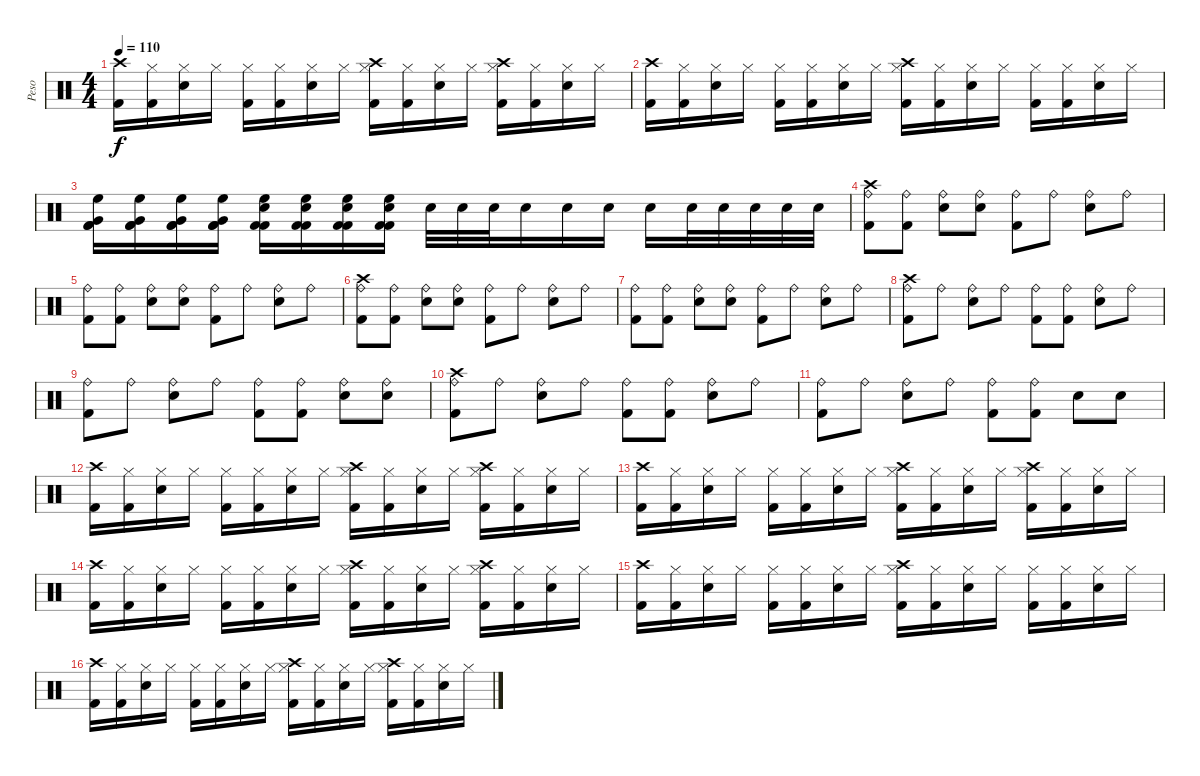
\track ("Peso" "Peso") {instrument percussion}
\staff {score}
\articulation defaults
\ts (4 4)
\tempo 110
\clef neutral
\ks c
("Crash high (hit)" "Kick (hit) 2").16{dy f} ("Hi-Hat (closed)" "Kick (hit) 2").16 ("Hi-Hat (closed)" "Snare (hit) 2").16 "Hi-Hat (closed)".16 ("Hi-Hat (closed)" "Kick (hit) 2").16 ("Hi-Hat (closed)" "Kick (hit) 2").16 ("Hi-Hat (closed)" "Snare (hit) 2").16 "Hi-Hat (closed)".16 ("Crash high (hit)" "Hi-Hat (closed)" "Kick (hit) 2").16 ("Hi-Hat (closed)" "Kick (hit) 2").16 ("Hi-Hat (closed)" "Snare (hit) 2").16 "Hi-Hat (closed)".16 ("Crash high (hit)" "Hi-Hat (closed)" "Kick (hit) 2").16 ("Hi-Hat (closed)" "Kick (hit) 2").16 ("Hi-Hat (closed)" "Snare (hit) 2").16 "Hi-Hat (closed)".16 |
("Crash high (hit)" "Kick (hit) 2").16 ("Hi-Hat (closed)" "Kick (hit) 2").16 ("Hi-Hat (closed)" "Snare (hit) 2").16 "Hi-Hat (closed)".16 ("Hi-Hat (closed)" "Kick (hit) 2").16 ("Hi-Hat (closed)" "Kick (hit) 2").16 ("Hi-Hat (closed)" "Snare (hit) 2").16 "Hi-Hat (closed)".16 ("Crash high (hit)" "Hi-Hat (closed)" "Kick (hit) 2").16 ("Hi-Hat (closed)" "Kick (hit) 2").16 ("Hi-Hat (closed)" "Snare (hit) 2").16 "Hi-Hat (closed)".16 ("Hi-Hat (closed)" "Kick (hit) 2").16 ("Hi-Hat (closed)" "Kick (hit) 2").16 ("Hi-Hat (closed)" "Snare (hit) 2").16 "Hi-Hat (closed)".16 |
("Very Low Tom (hit)" "High Floor Tom (hit)" "Kick (hit) 2" "Kick (hit) 2").16 ("Very Low Tom (hit)" "High Floor Tom (hit)" "Kick (hit) 2" "Kick (hit) 2").16 ("Very Low Tom (hit)" "High Floor Tom (hit)" "Kick (hit) 2" "Kick (hit) 2").16 ("Very Low Tom (hit)" "High Floor Tom (hit)" "Kick (hit) 2" "Kick (hit) 2").16 ("Snare (hit) 2" "High Floor Tom (hit)" "Kick (hit) 2" "Kick (hit) 2").16 ("Snare (hit) 2" "High Floor Tom (hit)" "Kick (hit) 2" "Kick (hit) 2").16 ("Snare (hit) 2" "High Floor Tom (hit)" "Kick (hit) 2" "Kick (hit) 2").16 ("Snare (hit) 2" "High Floor Tom (hit)" "Kick (hit) 2" "Kick (hit) 2").16 "Snare (hit) 2".32 "Snare (hit) 2".32 "Snare (hit) 2".32 "Snare (hit) 2".16 "Snare (hit) 2".16 "Snare (hit) 2".16 "Snare (hit) 2".16 "Snare (hit) 2".32 "Snare (hit) 2".32 "Snare (hit) 2".32 "Snare (hit) 2".32 "Snare (hit) 2".32 |
("Crash high (hit)" "Ride (bell)" "Kick (hit) 2").8 ("Ride (bell)" "Kick (hit) 2").8 ("Ride (bell)" "Snare (hit) 2").8 ("Ride (bell)" "Snare (hit) 2").8 ("Ride (bell)" "Kick (hit) 2").8 "Ride (bell)".8 ("Ride (bell)" "Snare (hit) 2").8 "Ride (bell)".8 |
("Ride (bell)" "Kick (hit) 2").8 ("Ride (bell)" "Kick (hit) 2").8 ("Ride (bell)" "Snare (hit) 2").8 ("Ride (bell)" "Snare (hit) 2").8 ("Ride (bell)" "Kick (hit) 2").8 "Ride (bell)".8 ("Ride (bell)" "Snare (hit) 2").8 "Ride (bell)".8 |
("Crash high (hit)" "Ride (bell)" "Kick (hit) 2").8 ("Ride (bell)" "Kick (hit) 2").8 ("Ride (bell)" "Snare (hit) 2").8 ("Ride (bell)" "Snare (hit) 2").8 ("Ride (bell)" "Kick (hit) 2").8 "Ride (bell)".8 ("Ride (bell)" "Snare (hit) 2").8 "Ride (bell)".8 |
("Ride (bell)" "Kick (hit) 2").8 ("Ride (bell)" "Kick (hit) 2").8 ("Ride (bell)" "Snare (hit) 2").8 ("Ride (bell)" "Snare (hit) 2").8 ("Ride (bell)" "Kick (hit) 2").8 "Ride (bell)".8 ("Ride (bell)" "Snare (hit) 2").8 "Ride (bell)".8 |
("Crash high (hit)" "Ride (bell)" "Kick (hit) 2").8 "Ride (bell)".8 ("Ride (bell)" "Snare (hit) 2").8 "Ride (bell)".8 ("Ride (bell)" "Kick (hit) 2").8 ("Ride (bell)" "Kick (hit) 2").8 ("Ride (bell)" "Snare (hit) 2").8 "Ride (bell)".8 |
("Ride (bell)" "Kick (hit) 2").8 "Ride (bell)".8 ("Ride (bell)" "Snare (hit) 2").8 "Ride (bell)".8 ("Ride (bell)" "Kick (hit) 2").8 ("Ride (bell)" "Kick (hit) 2").8 ("Ride (bell)" "Snare (hit) 2").8 ("Ride (bell)" "Snare (hit) 2").8 |
("Crash high (hit)" "Ride (bell)" "Kick (hit) 2").8 "Ride (bell)".8 ("Ride (bell)" "Snare (hit) 2").8 "Ride (bell)".8 ("Ride (bell)" "Kick (hit) 2").8 ("Ride (bell)" "Kick (hit) 2").8 ("Ride (bell)" "Snare (hit) 2").8 "Ride (bell)".8 |
("Ride (bell)" "Kick (hit) 2").8 "Ride (bell)".8 ("Ride (bell)" "Snare (hit) 2").8 "Ride (bell)".8 ("Ride (bell)" "Kick (hit) 2").8 ("Ride (bell)" "Kick (hit) 2").8 "Snare (hit) 2".8 "Snare (hit) 2".8 |
("Crash high (hit)" "Kick (hit) 2").16 ("Hi-Hat (closed)" "Kick (hit) 2").16 ("Hi-Hat (closed)" "Snare (hit) 2").16 "Hi-Hat (closed)".16 ("Hi-Hat (closed)" "Kick (hit) 2").16 ("Hi-Hat (closed)" "Kick (hit) 2").16 ("Hi-Hat (closed)" "Snare (hit) 2").16 "Hi-Hat (closed)".16 ("Crash high (hit)" "Hi-Hat (closed)" "Kick (hit) 2").16 ("Hi-Hat (closed)" "Kick (hit) 2").16 ("Hi-Hat (closed)" "Snare (hit) 2").16 "Hi-Hat (closed)".16 ("Crash high (hit)" "Hi-Hat (closed)" "Kick (hit) 2").16 ("Hi-Hat (closed)" "Kick (hit) 2").16 ("Hi-Hat (closed)" "Snare (hit) 2").16 "Hi-Hat (closed)".16 |
("Crash high (hit)" "Kick (hit) 2").16 ("Hi-Hat (closed)" "Kick (hit) 2").16 ("Hi-Hat (closed)" "Snare (hit) 2").16 "Hi-Hat (closed)".16 ("Hi-Hat (closed)" "Kick (hit) 2").16 ("Hi-Hat (closed)" "Kick (hit) 2").16 ("Hi-Hat (closed)" "Snare (hit) 2").16 "Hi-Hat (closed)".16 ("Crash high (hit)" "Hi-Hat (closed)" "Kick (hit) 2").16 ("Hi-Hat (closed)" "Kick (hit) 2").16 ("Hi-Hat (closed)" "Snare (hit) 2").16 "Hi-Hat (closed)".16 ("Crash high (hit)" "Hi-Hat (closed)" "Kick (hit) 2").16 ("Hi-Hat (closed)" "Kick (hit) 2").16 ("Hi-Hat (closed)" "Snare (hit) 2").16 "Hi-Hat (closed)".16 |
("Crash high (hit)" "Kick (hit) 2").16 ("Hi-Hat (closed)" "Kick (hit) 2").16 ("Hi-Hat (closed)" "Snare (hit) 2").16 "Hi-Hat (closed)".16 ("Hi-Hat (closed)" "Kick (hit) 2").16 ("Hi-Hat (closed)" "Kick (hit) 2").16 ("Hi-Hat (closed)" "Snare (hit) 2").16 "Hi-Hat (closed)".16 ("Crash high (hit)" "Hi-Hat (closed)" "Kick (hit) 2").16 ("Hi-Hat (closed)" "Kick (hit) 2").16 ("Hi-Hat (closed)" "Snare (hit) 2").16 "Hi-Hat (closed)".16 ("Crash high (hit)" "Hi-Hat (closed)" "Kick (hit) 2").16 ("Hi-Hat (closed)" "Kick (hit) 2").16 ("Hi-Hat (closed)" "Snare (hit) 2").16 "Hi-Hat (closed)".16 |
("Crash high (hit)" "Kick (hit) 2").16 ("Hi-Hat (closed)" "Kick (hit) 2").16 ("Hi-Hat (closed)" "Snare (hit) 2").16 "Hi-Hat (closed)".16 ("Hi-Hat (closed)" "Kick (hit) 2").16 ("Hi-Hat (closed)" "Kick (hit) 2").16 ("Hi-Hat (closed)" "Snare (hit) 2").16 "Hi-Hat (closed)".16 ("Crash high (hit)" "Hi-Hat (closed)" "Kick (hit) 2").16 ("Hi-Hat (closed)" "Kick (hit) 2").16 ("Hi-Hat (closed)" "Snare (hit) 2").16 "Hi-Hat (closed)".16 ("Hi-Hat (closed)" "Kick (hit) 2").16 ("Hi-Hat (closed)" "Kick (hit) 2").16 ("Hi-Hat (closed)" "Snare (hit) 2").16 "Hi-Hat (closed)".16 |
("Crash high (hit)" "Kick (hit) 2").16 ("Hi-Hat (closed)" "Kick (hit) 2").16 ("Hi-Hat (closed)" "Snare (hit) 2").16 "Hi-Hat (closed)".16 ("Hi-Hat (closed)" "Kick (hit) 2").16 ("Hi-Hat (closed)" "Kick (hit) 2").16 ("Hi-Hat (closed)" "Snare (hit) 2").16 "Hi-Hat (closed)".16 ("Crash high (hit)" "Hi-Hat (closed)" "Kick (hit) 2").16 ("Hi-Hat (closed)" "Kick (hit) 2").16 ("Hi-Hat (closed)" "Snare (hit) 2").16 "Hi-Hat (closed)".16 ("Crash high (hit)" "Hi-Hat (closed)" "Kick (hit) 2").16 ("Hi-Hat (closed)" "Kick (hit) 2").16 ("Hi-Hat (closed)" "Snare (hit) 2").16 "Hi-Hat (closed)".16
